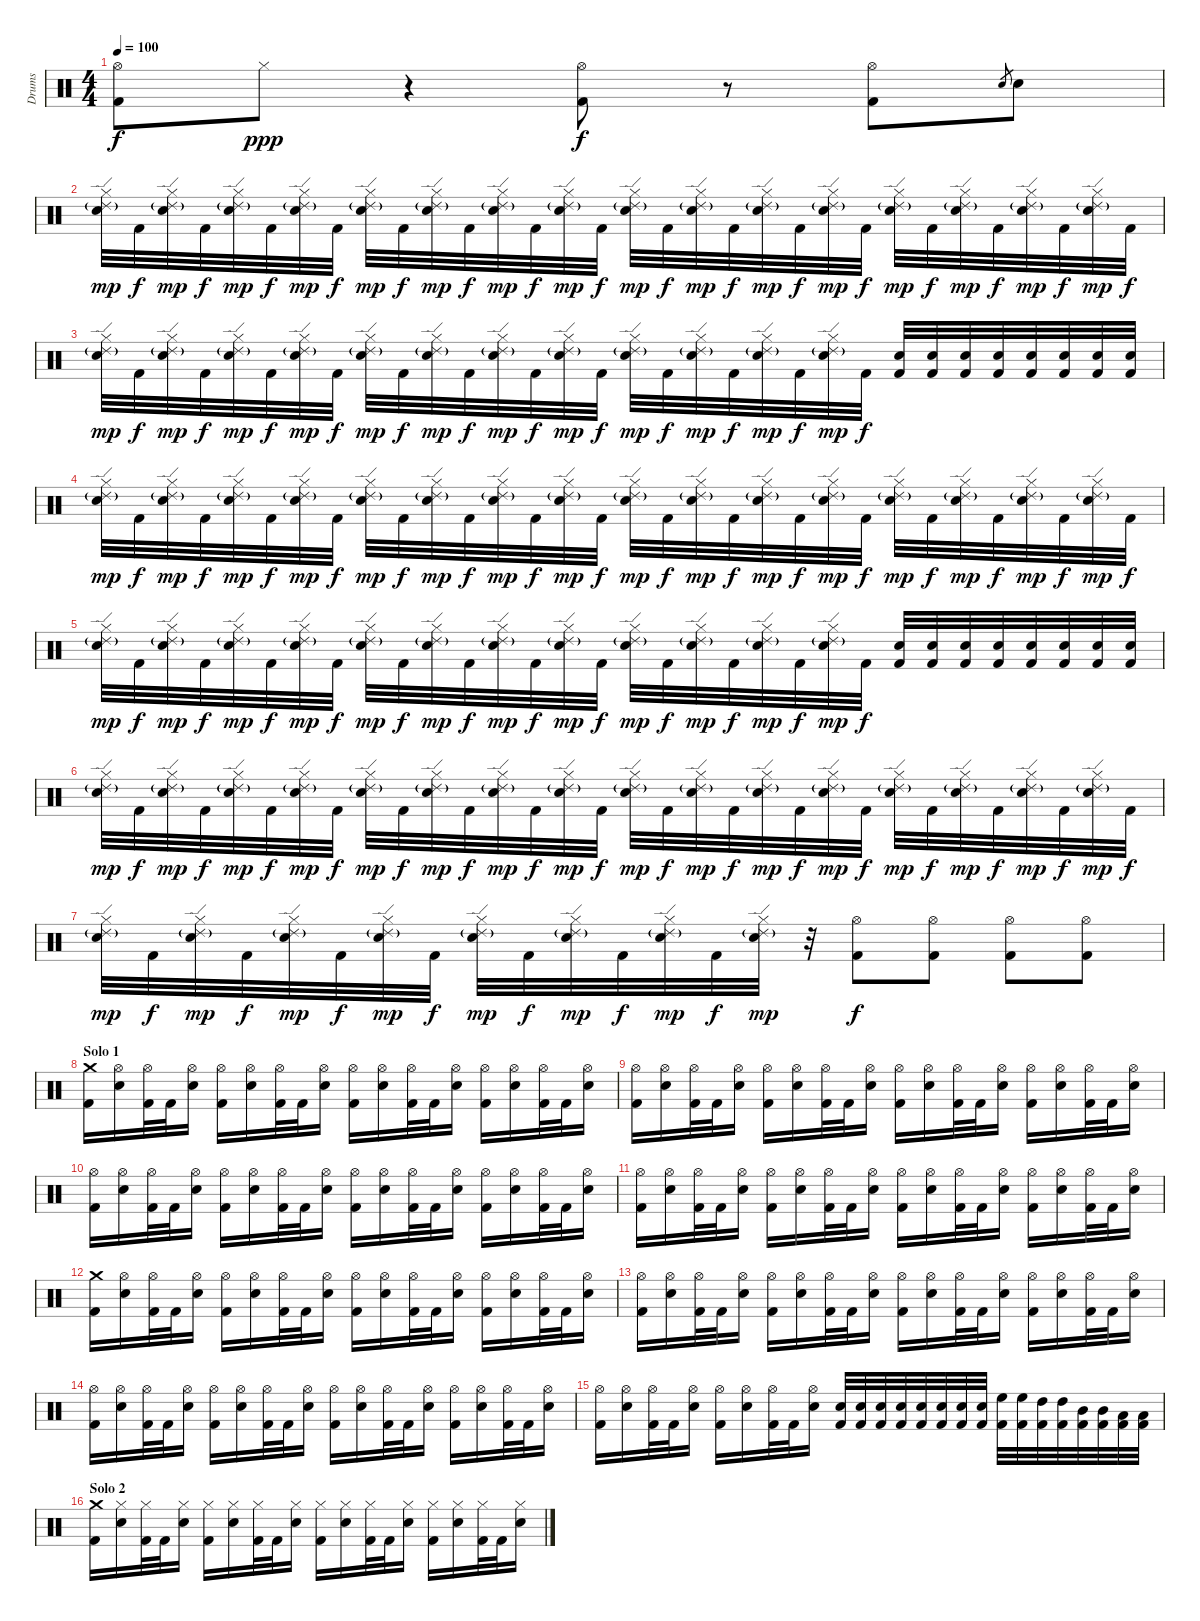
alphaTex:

\track ("Drums" "Drums") {instrument percussion}
\staff {score}
\articulation defaults
\ts (4 4)
\tempo 100
\clef neutral
\ks c
("Kick (hit) 2" "Hi-Hat (open)").8{dy f} "Hi-Hat (closed)".8{dy ppp} r.4 ("Kick (hit) 2" "Hi-Hat (open)").8{dy f} r.8 ("Kick (hit) 2" "Hi-Hat (open)").8 "Electric Snare (hit)".8{gr} "Electric Snare (hit)".8 |
\section ("" "")
("Electric Snare (hit)" "Hi-Hat (closed)" "Ride (edge) 2"{g}).32{dy mp} "Kick (hit) 2".32{dy f} ("Electric Snare (hit)" "Hi-Hat (closed)" "Ride (edge) 2"{g}).32{dy mp} "Kick (hit) 2".32{dy f} ("Electric Snare (hit)" "Hi-Hat (closed)" "Ride (edge) 2"{g}).32{dy mp} "Kick (hit) 2".32{dy f} ("Electric Snare (hit)" "Hi-Hat (closed)" "Ride (edge) 2"{g}).32{dy mp} "Kick (hit) 2".32{dy f} ("Electric Snare (hit)" "Hi-Hat (closed)" "Ride (edge) 2"{g}).32{dy mp} "Kick (hit) 2".32{dy f} ("Electric Snare (hit)" "Hi-Hat (closed)" "Ride (edge) 2"{g}).32{dy mp} "Kick (hit) 2".32{dy f} ("Electric Snare (hit)" "Hi-Hat (closed)" "Ride (edge) 2"{g}).32{dy mp} "Kick (hit) 2".32{dy f} ("Electric Snare (hit)" "Hi-Hat (closed)" "Ride (edge) 2"{g}).32{dy mp} "Kick (hit) 2".32{dy f} ("Electric Snare (hit)" "Hi-Hat (closed)" "Ride (edge) 2"{g}).32{dy mp} "Kick (hit) 2".32{dy f} ("Electric Snare (hit)" "Hi-Hat (closed)" "Ride (edge) 2"{g}).32{dy mp} "Kick (hit) 2".32{dy f} ("Electric Snare (hit)" "Hi-Hat (closed)" "Ride (edge) 2"{g}).32{dy mp} "Kick (hit) 2".32{dy f} ("Electric Snare (hit)" "Hi-Hat (closed)" "Ride (edge) 2"{g}).32{dy mp} "Kick (hit) 2".32{dy f} ("Electric Snare (hit)" "Hi-Hat (closed)" "Ride (edge) 2"{g}).32{dy mp} "Kick (hit) 2".32{dy f} ("Electric Snare (hit)" "Hi-Hat (closed)" "Ride (edge) 2"{g}).32{dy mp} "Kick (hit) 2".32{dy f} ("Electric Snare (hit)" "Hi-Hat (closed)" "Ride (edge) 2"{g}).32{dy mp} "Kick (hit) 2".32{dy f} ("Electric Snare (hit)" "Hi-Hat (closed)" "Ride (edge) 2"{g}).32{dy mp} "Kick (hit) 2".32{dy f} |
("Electric Snare (hit)" "Hi-Hat (closed)" "Ride (edge) 2"{g}).32{dy mp} "Kick (hit) 2".32{dy f} ("Electric Snare (hit)" "Hi-Hat (closed)" "Ride (edge) 2"{g}).32{dy mp} "Kick (hit) 2".32{dy f} ("Electric Snare (hit)" "Hi-Hat (closed)" "Ride (edge) 2"{g}).32{dy mp} "Kick (hit) 2".32{dy f} ("Electric Snare (hit)" "Hi-Hat (closed)" "Ride (edge) 2"{g}).32{dy mp} "Kick (hit) 2".32{dy f} ("Electric Snare (hit)" "Hi-Hat (closed)" "Ride (edge) 2"{g}).32{dy mp} "Kick (hit) 2".32{dy f} ("Electric Snare (hit)" "Hi-Hat (closed)" "Ride (edge) 2"{g}).32{dy mp} "Kick (hit) 2".32{dy f} ("Electric Snare (hit)" "Hi-Hat (closed)" "Ride (edge) 2"{g}).32{dy mp} "Kick (hit) 2".32{dy f} ("Electric Snare (hit)" "Hi-Hat (closed)" "Ride (edge) 2"{g}).32{dy mp} "Kick (hit) 2".32{dy f} ("Electric Snare (hit)" "Hi-Hat (closed)" "Ride (edge) 2"{g}).32{dy mp} "Kick (hit) 2".32{dy f} ("Electric Snare (hit)" "Hi-Hat (closed)" "Ride (edge) 2"{g}).32{dy mp} "Kick (hit) 2".32{dy f} ("Electric Snare (hit)" "Hi-Hat (closed)" "Ride (edge) 2"{g}).32{dy mp} "Kick (hit) 2".32{dy f} ("Electric Snare (hit)" "Hi-Hat (closed)" "Ride (edge) 2"{g}).32{dy mp} "Kick (hit) 2".32{dy f} ("Kick (hit) 2" "Electric Snare (hit)").32 ("Kick (hit) 2" "Electric Snare (hit)").32 ("Kick (hit) 2" "Electric Snare (hit)").32 ("Kick (hit) 2" "Electric Snare (hit)").32 ("Kick (hit) 2" "Electric Snare (hit)").32 ("Kick (hit) 2" "Electric Snare (hit)").32 ("Kick (hit) 2" "Electric Snare (hit)").32 ("Kick (hit) 2" "Electric Snare (hit)").32 |
("Electric Snare (hit)" "Hi-Hat (closed)" "Ride (edge) 2"{g}).32{dy mp} "Kick (hit) 2".32{dy f} ("Electric Snare (hit)" "Hi-Hat (closed)" "Ride (edge) 2"{g}).32{dy mp} "Kick (hit) 2".32{dy f} ("Electric Snare (hit)" "Hi-Hat (closed)" "Ride (edge) 2"{g}).32{dy mp} "Kick (hit) 2".32{dy f} ("Electric Snare (hit)" "Hi-Hat (closed)" "Ride (edge) 2"{g}).32{dy mp} "Kick (hit) 2".32{dy f} ("Electric Snare (hit)" "Hi-Hat (closed)" "Ride (edge) 2"{g}).32{dy mp} "Kick (hit) 2".32{dy f} ("Electric Snare (hit)" "Hi-Hat (closed)" "Ride (edge) 2"{g}).32{dy mp} "Kick (hit) 2".32{dy f} ("Electric Snare (hit)" "Hi-Hat (closed)" "Ride (edge) 2"{g}).32{dy mp} "Kick (hit) 2".32{dy f} ("Electric Snare (hit)" "Hi-Hat (closed)" "Ride (edge) 2"{g}).32{dy mp} "Kick (hit) 2".32{dy f} ("Electric Snare (hit)" "Hi-Hat (closed)" "Ride (edge) 2"{g}).32{dy mp} "Kick (hit) 2".32{dy f} ("Electric Snare (hit)" "Hi-Hat (closed)" "Ride (edge) 2"{g}).32{dy mp} "Kick (hit) 2".32{dy f} ("Electric Snare (hit)" "Hi-Hat (closed)" "Ride (edge) 2"{g}).32{dy mp} "Kick (hit) 2".32{dy f} ("Electric Snare (hit)" "Hi-Hat (closed)" "Ride (edge) 2"{g}).32{dy mp} "Kick (hit) 2".32{dy f} ("Electric Snare (hit)" "Hi-Hat (closed)" "Ride (edge) 2"{g}).32{dy mp} "Kick (hit) 2".32{dy f} ("Electric Snare (hit)" "Hi-Hat (closed)" "Ride (edge) 2"{g}).32{dy mp} "Kick (hit) 2".32{dy f} ("Electric Snare (hit)" "Hi-Hat (closed)" "Ride (edge) 2"{g}).32{dy mp} "Kick (hit) 2".32{dy f} ("Electric Snare (hit)" "Hi-Hat (closed)" "Ride (edge) 2"{g}).32{dy mp} "Kick (hit) 2".32{dy f} |
("Electric Snare (hit)" "Hi-Hat (closed)" "Ride (edge) 2"{g}).32{dy mp} "Kick (hit) 2".32{dy f} ("Electric Snare (hit)" "Hi-Hat (closed)" "Ride (edge) 2"{g}).32{dy mp} "Kick (hit) 2".32{dy f} ("Electric Snare (hit)" "Hi-Hat (closed)" "Ride (edge) 2"{g}).32{dy mp} "Kick (hit) 2".32{dy f} ("Electric Snare (hit)" "Hi-Hat (closed)" "Ride (edge) 2"{g}).32{dy mp} "Kick (hit) 2".32{dy f} ("Electric Snare (hit)" "Hi-Hat (closed)" "Ride (edge) 2"{g}).32{dy mp} "Kick (hit) 2".32{dy f} ("Electric Snare (hit)" "Hi-Hat (closed)" "Ride (edge) 2"{g}).32{dy mp} "Kick (hit) 2".32{dy f} ("Electric Snare (hit)" "Hi-Hat (closed)" "Ride (edge) 2"{g}).32{dy mp} "Kick (hit) 2".32{dy f} ("Electric Snare (hit)" "Hi-Hat (closed)" "Ride (edge) 2"{g}).32{dy mp} "Kick (hit) 2".32{dy f} ("Electric Snare (hit)" "Hi-Hat (closed)" "Ride (edge) 2"{g}).32{dy mp} "Kick (hit) 2".32{dy f} ("Electric Snare (hit)" "Hi-Hat (closed)" "Ride (edge) 2"{g}).32{dy mp} "Kick (hit) 2".32{dy f} ("Electric Snare (hit)" "Hi-Hat (closed)" "Ride (edge) 2"{g}).32{dy mp} "Kick (hit) 2".32{dy f} ("Electric Snare (hit)" "Hi-Hat (closed)" "Ride (edge) 2"{g}).32{dy mp} "Kick (hit) 2".32{dy f} ("Kick (hit) 2" "Electric Snare (hit)").32 ("Kick (hit) 2" "Electric Snare (hit)").32 ("Kick (hit) 2" "Electric Snare (hit)").32 ("Kick (hit) 2" "Electric Snare (hit)").32 ("Kick (hit) 2" "Electric Snare (hit)").32 ("Kick (hit) 2" "Electric Snare (hit)").32 ("Kick (hit) 2" "Electric Snare (hit)").32 ("Kick (hit) 2" "Electric Snare (hit)").32 |
\section ("" "")
("Electric Snare (hit)" "Hi-Hat (closed)" "Ride (edge) 2"{g}).32{dy mp} "Kick (hit) 2".32{dy f} ("Electric Snare (hit)" "Hi-Hat (closed)" "Ride (edge) 2"{g}).32{dy mp} "Kick (hit) 2".32{dy f} ("Electric Snare (hit)" "Hi-Hat (closed)" "Ride (edge) 2"{g}).32{dy mp} "Kick (hit) 2".32{dy f} ("Electric Snare (hit)" "Hi-Hat (closed)" "Ride (edge) 2"{g}).32{dy mp} "Kick (hit) 2".32{dy f} ("Electric Snare (hit)" "Hi-Hat (closed)" "Ride (edge) 2"{g}).32{dy mp} "Kick (hit) 2".32{dy f} ("Electric Snare (hit)" "Hi-Hat (closed)" "Ride (edge) 2"{g}).32{dy mp} "Kick (hit) 2".32{dy f} ("Electric Snare (hit)" "Hi-Hat (closed)" "Ride (edge) 2"{g}).32{dy mp} "Kick (hit) 2".32{dy f} ("Electric Snare (hit)" "Hi-Hat (closed)" "Ride (edge) 2"{g}).32{dy mp} "Kick (hit) 2".32{dy f} ("Electric Snare (hit)" "Hi-Hat (closed)" "Ride (edge) 2"{g}).32{dy mp} "Kick (hit) 2".32{dy f} ("Electric Snare (hit)" "Hi-Hat (closed)" "Ride (edge) 2"{g}).32{dy mp} "Kick (hit) 2".32{dy f} ("Electric Snare (hit)" "Hi-Hat (closed)" "Ride (edge) 2"{g}).32{dy mp} "Kick (hit) 2".32{dy f} ("Electric Snare (hit)" "Hi-Hat (closed)" "Ride (edge) 2"{g}).32{dy mp} "Kick (hit) 2".32{dy f} ("Electric Snare (hit)" "Hi-Hat (closed)" "Ride (edge) 2"{g}).32{dy mp} "Kick (hit) 2".32{dy f} ("Electric Snare (hit)" "Hi-Hat (closed)" "Ride (edge) 2"{g}).32{dy mp} "Kick (hit) 2".32{dy f} ("Electric Snare (hit)" "Hi-Hat (closed)" "Ride (edge) 2"{g}).32{dy mp} "Kick (hit) 2".32{dy f} ("Electric Snare (hit)" "Hi-Hat (closed)" "Ride (edge) 2"{g}).32{dy mp} "Kick (hit) 2".32{dy f} |
("Electric Snare (hit)" "Hi-Hat (closed)" "Ride (edge) 2"{g}).32{dy mp} "Kick (hit) 2".32{dy f} ("Electric Snare (hit)" "Hi-Hat (closed)" "Ride (edge) 2"{g}).32{dy mp} "Kick (hit) 2".32{dy f} ("Electric Snare (hit)" "Hi-Hat (closed)" "Ride (edge) 2"{g}).32{dy mp} "Kick (hit) 2".32{dy f} ("Electric Snare (hit)" "Hi-Hat (closed)" "Ride (edge) 2"{g}).32{dy mp} "Kick (hit) 2".32{dy f} ("Electric Snare (hit)" "Hi-Hat (closed)" "Ride (edge) 2"{g}).32{dy mp} "Kick (hit) 2".32{dy f} ("Electric Snare (hit)" "Hi-Hat (closed)" "Ride (edge) 2"{g}).32{dy mp} "Kick (hit) 2".32{dy f} ("Electric Snare (hit)" "Hi-Hat (closed)" "Ride (edge) 2"{g}).32{dy mp} "Kick (hit) 2".32{dy f} ("Electric Snare (hit)" "Hi-Hat (closed)" "Ride (edge) 2"{g}).32{dy mp} r.32 ("Kick (hit) 2" "Hi-Hat (open)").8{dy f} ("Kick (hit) 2" "Hi-Hat (open)").8 ("Kick (hit) 2" "Hi-Hat (open)").8 ("Kick (hit) 2" "Hi-Hat (open)").8 |
\section ("" "Solo 1")
("Kick (hit) 2" "Crash medium (hit)").16 ("Electric Snare (hit)" "Hi-Hat (open)").16 ("Kick (hit) 2" "Hi-Hat (open)").32 "Kick (hit) 2".32 ("Electric Snare (hit)" "Hi-Hat (open)").16 ("Kick (hit) 2" "Hi-Hat (open)").16 ("Electric Snare (hit)" "Hi-Hat (open)").16 ("Kick (hit) 2" "Hi-Hat (open)").32 "Kick (hit) 2".32 ("Electric Snare (hit)" "Hi-Hat (open)").16 ("Kick (hit) 2" "Hi-Hat (open)").16 ("Electric Snare (hit)" "Hi-Hat (open)").16 ("Kick (hit) 2" "Hi-Hat (open)").32 "Kick (hit) 2".32 ("Electric Snare (hit)" "Hi-Hat (open)").16 ("Kick (hit) 2" "Hi-Hat (open)").16 ("Electric Snare (hit)" "Hi-Hat (open)").16 ("Kick (hit) 2" "Hi-Hat (open)").32 "Kick (hit) 2".32 ("Electric Snare (hit)" "Hi-Hat (open)").16 |
("Kick (hit) 2" "Hi-Hat (open)").16 ("Electric Snare (hit)" "Hi-Hat (open)").16 ("Kick (hit) 2" "Hi-Hat (open)").32 "Kick (hit) 2".32 ("Electric Snare (hit)" "Hi-Hat (open)").16 ("Kick (hit) 2" "Hi-Hat (open)").16 ("Electric Snare (hit)" "Hi-Hat (open)").16 ("Kick (hit) 2" "Hi-Hat (open)").32 "Kick (hit) 2".32 ("Electric Snare (hit)" "Hi-Hat (open)").16 ("Kick (hit) 2" "Hi-Hat (open)").16 ("Electric Snare (hit)" "Hi-Hat (open)").16 ("Kick (hit) 2" "Hi-Hat (open)").32 "Kick (hit) 2".32 ("Electric Snare (hit)" "Hi-Hat (open)").16 ("Kick (hit) 2" "Hi-Hat (open)").16 ("Electric Snare (hit)" "Hi-Hat (open)").16 ("Kick (hit) 2" "Hi-Hat (open)").32 "Kick (hit) 2".32 ("Electric Snare (hit)" "Hi-Hat (open)").16 |
("Kick (hit) 2" "Hi-Hat (open)").16 ("Electric Snare (hit)" "Hi-Hat (open)").16 ("Kick (hit) 2" "Hi-Hat (open)").32 "Kick (hit) 2".32 ("Electric Snare (hit)" "Hi-Hat (open)").16 ("Kick (hit) 2" "Hi-Hat (open)").16 ("Electric Snare (hit)" "Hi-Hat (open)").16 ("Kick (hit) 2" "Hi-Hat (open)").32 "Kick (hit) 2".32 ("Electric Snare (hit)" "Hi-Hat (open)").16 ("Kick (hit) 2" "Hi-Hat (open)").16 ("Electric Snare (hit)" "Hi-Hat (open)").16 ("Kick (hit) 2" "Hi-Hat (open)").32 "Kick (hit) 2".32 ("Electric Snare (hit)" "Hi-Hat (open)").16 ("Kick (hit) 2" "Hi-Hat (open)").16 ("Electric Snare (hit)" "Hi-Hat (open)").16 ("Kick (hit) 2" "Hi-Hat (open)").32 "Kick (hit) 2".32 ("Electric Snare (hit)" "Hi-Hat (open)").16 |
("Kick (hit) 2" "Hi-Hat (open)").16 ("Electric Snare (hit)" "Hi-Hat (open)").16 ("Kick (hit) 2" "Hi-Hat (open)").32 "Kick (hit) 2".32 ("Electric Snare (hit)" "Hi-Hat (open)").16 ("Kick (hit) 2" "Hi-Hat (open)").16 ("Electric Snare (hit)" "Hi-Hat (open)").16 ("Kick (hit) 2" "Hi-Hat (open)").32 "Kick (hit) 2".32 ("Electric Snare (hit)" "Hi-Hat (open)").16 ("Kick (hit) 2" "Hi-Hat (open)").16 ("Electric Snare (hit)" "Hi-Hat (open)").16 ("Kick (hit) 2" "Hi-Hat (open)").32 "Kick (hit) 2".32 ("Electric Snare (hit)" "Hi-Hat (open)").16 ("Kick (hit) 2" "Hi-Hat (open)").16 ("Electric Snare (hit)" "Hi-Hat (open)").16 ("Kick (hit) 2" "Hi-Hat (open)").32 "Kick (hit) 2".32 ("Electric Snare (hit)" "Hi-Hat (open)").16 |
("Kick (hit) 2" "Crash medium (hit)").16 ("Electric Snare (hit)" "Hi-Hat (open)").16 ("Kick (hit) 2" "Hi-Hat (open)").32 "Kick (hit) 2".32 ("Electric Snare (hit)" "Hi-Hat (open)").16 ("Kick (hit) 2" "Hi-Hat (open)").16 ("Electric Snare (hit)" "Hi-Hat (open)").16 ("Kick (hit) 2" "Hi-Hat (open)").32 "Kick (hit) 2".32 ("Electric Snare (hit)" "Hi-Hat (open)").16 ("Kick (hit) 2" "Hi-Hat (open)").16 ("Electric Snare (hit)" "Hi-Hat (open)").16 ("Kick (hit) 2" "Hi-Hat (open)").32 "Kick (hit) 2".32 ("Electric Snare (hit)" "Hi-Hat (open)").16 ("Kick (hit) 2" "Hi-Hat (open)").16 ("Electric Snare (hit)" "Hi-Hat (open)").16 ("Kick (hit) 2" "Hi-Hat (open)").32 "Kick (hit) 2".32 ("Electric Snare (hit)" "Hi-Hat (open)").16 |
("Kick (hit) 2" "Hi-Hat (open)").16 ("Electric Snare (hit)" "Hi-Hat (open)").16 ("Kick (hit) 2" "Hi-Hat (open)").32 "Kick (hit) 2".32 ("Electric Snare (hit)" "Hi-Hat (open)").16 ("Kick (hit) 2" "Hi-Hat (open)").16 ("Electric Snare (hit)" "Hi-Hat (open)").16 ("Kick (hit) 2" "Hi-Hat (open)").32 "Kick (hit) 2".32 ("Electric Snare (hit)" "Hi-Hat (open)").16 ("Kick (hit) 2" "Hi-Hat (open)").16 ("Electric Snare (hit)" "Hi-Hat (open)").16 ("Kick (hit) 2" "Hi-Hat (open)").32 "Kick (hit) 2".32 ("Electric Snare (hit)" "Hi-Hat (open)").16 ("Kick (hit) 2" "Hi-Hat (open)").16 ("Electric Snare (hit)" "Hi-Hat (open)").16 ("Kick (hit) 2" "Hi-Hat (open)").32 "Kick (hit) 2".32 ("Electric Snare (hit)" "Hi-Hat (open)").16 |
("Kick (hit) 2" "Hi-Hat (open)").16 ("Electric Snare (hit)" "Hi-Hat (open)").16 ("Kick (hit) 2" "Hi-Hat (open)").32 "Kick (hit) 2".32 ("Electric Snare (hit)" "Hi-Hat (open)").16 ("Kick (hit) 2" "Hi-Hat (open)").16 ("Electric Snare (hit)" "Hi-Hat (open)").16 ("Kick (hit) 2" "Hi-Hat (open)").32 "Kick (hit) 2".32 ("Electric Snare (hit)" "Hi-Hat (open)").16 ("Kick (hit) 2" "Hi-Hat (open)").16 ("Electric Snare (hit)" "Hi-Hat (open)").16 ("Kick (hit) 2" "Hi-Hat (open)").32 "Kick (hit) 2".32 ("Electric Snare (hit)" "Hi-Hat (open)").16 ("Kick (hit) 2" "Hi-Hat (open)").16 ("Electric Snare (hit)" "Hi-Hat (open)").16 ("Kick (hit) 2" "Hi-Hat (open)").32 "Kick (hit) 2".32 ("Electric Snare (hit)" "Hi-Hat (open)").16 |
("Kick (hit) 2" "Hi-Hat (open)").16 ("Electric Snare (hit)" "Hi-Hat (open)").16 ("Kick (hit) 2" "Hi-Hat (open)").32 "Kick (hit) 2".32 ("Electric Snare (hit)" "Hi-Hat (open)").16 ("Kick (hit) 2" "Hi-Hat (open)").16 ("Electric Snare (hit)" "Hi-Hat (open)").16 ("Kick (hit) 2" "Hi-Hat (open)").32 "Kick (hit) 2".32 ("Electric Snare (hit)" "Hi-Hat (open)").16 ("Kick (hit) 2" "Electric Snare (hit)").32 ("Kick (hit) 2" "Electric Snare (hit)").32 ("Kick (hit) 2" "Electric Snare (hit)").32 ("Kick (hit) 2" "Electric Snare (hit)").32 ("Kick (hit) 2" "Electric Snare (hit)").32 ("Kick (hit) 2" "Electric Snare (hit)").32 ("Kick (hit) 2" "Electric Snare (hit)").32 ("Kick (hit) 2" "Electric Snare (hit)").32 ("Kick (hit) 2" "High Floor Tom (hit)").32 ("Kick (hit) 2" "High Floor Tom (hit)").32 ("Kick (hit) 2" "High Tom (hit)").32 ("Kick (hit) 2" "High Tom (hit)").32 ("Kick (hit) 2" "Mid Tom (hit)").32 ("Kick (hit) 2" "Mid Tom (hit)").32 ("Kick (hit) 2" "Low Tom (hit)").32 ("Kick (hit) 2" "Low Tom (hit)").32 |
\section ("" "Solo 2")
("Kick (hit) 2" "Crash medium (hit)").16 ("Electric Snare (hit)" "Hi-Hat (closed)").16 ("Kick (hit) 2" "Hi-Hat (closed)").32 "Kick (hit) 2".32 ("Electric Snare (hit)" "Hi-Hat (closed)").16 ("Kick (hit) 2" "Hi-Hat (closed)").16 ("Electric Snare (hit)" "Hi-Hat (closed)").16 ("Kick (hit) 2" "Hi-Hat (closed)").32 "Kick (hit) 2".32 ("Electric Snare (hit)" "Hi-Hat (closed)").16 ("Kick (hit) 2" "Hi-Hat (closed)").16 ("Electric Snare (hit)" "Hi-Hat (closed)").16 ("Kick (hit) 2" "Hi-Hat (closed)").32 "Kick (hit) 2".32 ("Electric Snare (hit)" "Hi-Hat (closed)").16 ("Kick (hit) 2" "Hi-Hat (closed)").16 ("Electric Snare (hit)" "Hi-Hat (closed)").16 ("Kick (hit) 2" "Hi-Hat (closed)").32 "Kick (hit) 2".32 ("Electric Snare (hit)" "Hi-Hat (closed)").16
